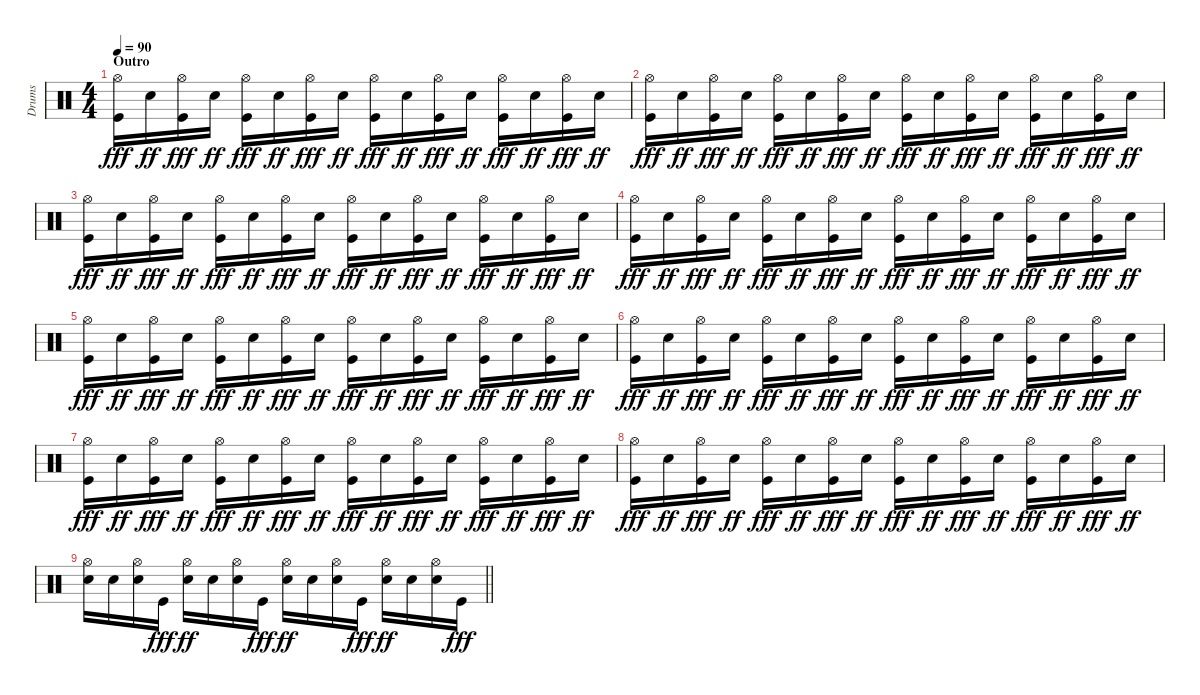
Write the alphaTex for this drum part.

\track ("Drums" "Drums") {instrument percussion}
\staff {score}
\articulation defaults
\ts (4 4)
\section ("" "Outro")
\tempo 90
\clef neutral
\ks c
("Hi-Hat (open)" "Kick (hit)").16{dy fff} "Electric Snare (hit)".16{dy ff} ("Hi-Hat (open)" "Kick (hit)").16{dy fff} "Electric Snare (hit)".16{dy ff} ("Hi-Hat (open)" "Kick (hit)").16{dy fff} "Electric Snare (hit)".16{dy ff} ("Hi-Hat (open)" "Kick (hit)").16{dy fff} "Electric Snare (hit)".16{dy ff} ("Hi-Hat (open)" "Kick (hit)").16{dy fff} "Electric Snare (hit)".16{dy ff} ("Hi-Hat (open)" "Kick (hit)").16{dy fff} "Electric Snare (hit)".16{dy ff} ("Hi-Hat (open)" "Kick (hit)").16{dy fff} "Electric Snare (hit)".16{dy ff} ("Hi-Hat (open)" "Kick (hit)").16{dy fff} "Electric Snare (hit)".16{dy ff} |
("Hi-Hat (open)" "Kick (hit)").16{dy fff} "Electric Snare (hit)".16{dy ff} ("Hi-Hat (open)" "Kick (hit)").16{dy fff} "Electric Snare (hit)".16{dy ff} ("Hi-Hat (open)" "Kick (hit)").16{dy fff} "Electric Snare (hit)".16{dy ff} ("Hi-Hat (open)" "Kick (hit)").16{dy fff} "Electric Snare (hit)".16{dy ff} ("Hi-Hat (open)" "Kick (hit)").16{dy fff} "Electric Snare (hit)".16{dy ff} ("Hi-Hat (open)" "Kick (hit)").16{dy fff} "Electric Snare (hit)".16{dy ff} ("Hi-Hat (open)" "Kick (hit)").16{dy fff} "Electric Snare (hit)".16{dy ff} ("Hi-Hat (open)" "Kick (hit)").16{dy fff} "Electric Snare (hit)".16{dy ff} |
("Hi-Hat (open)" "Kick (hit)").16{dy fff} "Electric Snare (hit)".16{dy ff} ("Hi-Hat (open)" "Kick (hit)").16{dy fff} "Electric Snare (hit)".16{dy ff} ("Hi-Hat (open)" "Kick (hit)").16{dy fff} "Electric Snare (hit)".16{dy ff} ("Hi-Hat (open)" "Kick (hit)").16{dy fff} "Electric Snare (hit)".16{dy ff} ("Hi-Hat (open)" "Kick (hit)").16{dy fff} "Electric Snare (hit)".16{dy ff} ("Hi-Hat (open)" "Kick (hit)").16{dy fff} "Electric Snare (hit)".16{dy ff} ("Hi-Hat (open)" "Kick (hit)").16{dy fff} "Electric Snare (hit)".16{dy ff} ("Hi-Hat (open)" "Kick (hit)").16{dy fff} "Electric Snare (hit)".16{dy ff} |
("Hi-Hat (open)" "Kick (hit)").16{dy fff} "Electric Snare (hit)".16{dy ff} ("Hi-Hat (open)" "Kick (hit)").16{dy fff} "Electric Snare (hit)".16{dy ff} ("Hi-Hat (open)" "Kick (hit)").16{dy fff} "Electric Snare (hit)".16{dy ff} ("Hi-Hat (open)" "Kick (hit)").16{dy fff} "Electric Snare (hit)".16{dy ff} ("Hi-Hat (open)" "Kick (hit)").16{dy fff} "Electric Snare (hit)".16{dy ff} ("Hi-Hat (open)" "Kick (hit)").16{dy fff} "Electric Snare (hit)".16{dy ff} ("Hi-Hat (open)" "Kick (hit)").16{dy fff} "Electric Snare (hit)".16{dy ff} ("Hi-Hat (open)" "Kick (hit)").16{dy fff} "Electric Snare (hit)".16{dy ff} |
("Hi-Hat (open)" "Kick (hit)").16{dy fff} "Electric Snare (hit)".16{dy ff} ("Hi-Hat (open)" "Kick (hit)").16{dy fff} "Electric Snare (hit)".16{dy ff} ("Hi-Hat (open)" "Kick (hit)").16{dy fff} "Electric Snare (hit)".16{dy ff} ("Hi-Hat (open)" "Kick (hit)").16{dy fff} "Electric Snare (hit)".16{dy ff} ("Hi-Hat (open)" "Kick (hit)").16{dy fff} "Electric Snare (hit)".16{dy ff} ("Hi-Hat (open)" "Kick (hit)").16{dy fff} "Electric Snare (hit)".16{dy ff} ("Hi-Hat (open)" "Kick (hit)").16{dy fff} "Electric Snare (hit)".16{dy ff} ("Hi-Hat (open)" "Kick (hit)").16{dy fff} "Electric Snare (hit)".16{dy ff} |
("Hi-Hat (open)" "Kick (hit)").16{dy fff} "Electric Snare (hit)".16{dy ff} ("Hi-Hat (open)" "Kick (hit)").16{dy fff} "Electric Snare (hit)".16{dy ff} ("Hi-Hat (open)" "Kick (hit)").16{dy fff} "Electric Snare (hit)".16{dy ff} ("Hi-Hat (open)" "Kick (hit)").16{dy fff} "Electric Snare (hit)".16{dy ff} ("Hi-Hat (open)" "Kick (hit)").16{dy fff} "Electric Snare (hit)".16{dy ff} ("Hi-Hat (open)" "Kick (hit)").16{dy fff} "Electric Snare (hit)".16{dy ff} ("Hi-Hat (open)" "Kick (hit)").16{dy fff} "Electric Snare (hit)".16{dy ff} ("Hi-Hat (open)" "Kick (hit)").16{dy fff} "Electric Snare (hit)".16{dy ff} |
("Hi-Hat (open)" "Kick (hit)").16{dy fff} "Electric Snare (hit)".16{dy ff} ("Hi-Hat (open)" "Kick (hit)").16{dy fff} "Electric Snare (hit)".16{dy ff} ("Hi-Hat (open)" "Kick (hit)").16{dy fff} "Electric Snare (hit)".16{dy ff} ("Hi-Hat (open)" "Kick (hit)").16{dy fff} "Electric Snare (hit)".16{dy ff} ("Hi-Hat (open)" "Kick (hit)").16{dy fff} "Electric Snare (hit)".16{dy ff} ("Hi-Hat (open)" "Kick (hit)").16{dy fff} "Electric Snare (hit)".16{dy ff} ("Hi-Hat (open)" "Kick (hit)").16{dy fff} "Electric Snare (hit)".16{dy ff} ("Hi-Hat (open)" "Kick (hit)").16{dy fff} "Electric Snare (hit)".16{dy ff} |
("Hi-Hat (open)" "Kick (hit)").16{dy fff} "Electric Snare (hit)".16{dy ff} ("Hi-Hat (open)" "Kick (hit)").16{dy fff} "Electric Snare (hit)".16{dy ff} ("Hi-Hat (open)" "Kick (hit)").16{dy fff} "Electric Snare (hit)".16{dy ff} ("Hi-Hat (open)" "Kick (hit)").16{dy fff} "Electric Snare (hit)".16{dy ff} ("Hi-Hat (open)" "Kick (hit)").16{dy fff} "Electric Snare (hit)".16{dy ff} ("Hi-Hat (open)" "Kick (hit)").16{dy fff} "Electric Snare (hit)".16{dy ff} ("Hi-Hat (open)" "Kick (hit)").16{dy fff} "Electric Snare (hit)".16{dy ff} ("Hi-Hat (open)" "Kick (hit)").16{dy fff} "Electric Snare (hit)".16{dy ff} |
\barLineRight lightlight
("Hi-Hat (open)" "Electric Snare (hit)").16 "Electric Snare (hit)".16 ("Hi-Hat (open)" "Electric Snare (hit)").16 "Kick (hit)".16{dy fff} ("Hi-Hat (open)" "Electric Snare (hit)").16{dy ff} "Electric Snare (hit)".16 ("Hi-Hat (open)" "Electric Snare (hit)").16 "Kick (hit)".16{dy fff} ("Hi-Hat (open)" "Electric Snare (hit)").16{dy ff} "Electric Snare (hit)".16 ("Hi-Hat (open)" "Electric Snare (hit)").16 "Kick (hit)".16{dy fff} ("Hi-Hat (open)" "Electric Snare (hit)").16{dy ff} "Electric Snare (hit)".16 ("Hi-Hat (open)" "Electric Snare (hit)").16 "Kick (hit)".16{dy fff}
